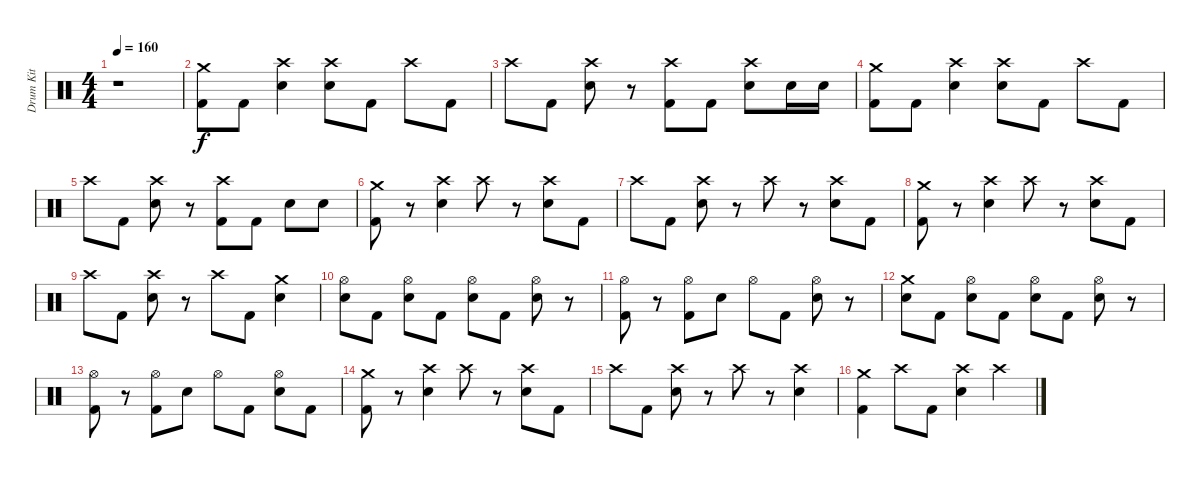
\track ("Drum Kit" "Drum Kit") {instrument percussion}
\staff {score}
\articulation defaults
\ts (4 4)
\tempo 160
\clef neutral
\ks c
r.1{dy f} |
("Crash medium (hit)" "Kick (hit) 2").8 "Kick (hit) 2".8 ("Crash high (hit)" "Electric Snare (hit)").4 ("Crash high (hit)" "Electric Snare (hit)").8 "Kick (hit) 2".8 "Crash high (hit)".8 "Kick (hit) 2".8 |
"Crash high (hit)".8 "Kick (hit) 2".8 ("Crash high (hit)" "Electric Snare (hit)").8 r.8 ("Crash high (hit)" "Kick (hit) 2").8 "Kick (hit) 2".8 ("Crash high (hit)" "Electric Snare (hit)").8 "Electric Snare (hit)".16 "Electric Snare (hit)".16 |
("Crash medium (hit)" "Kick (hit) 2").8 "Kick (hit) 2".8 ("Crash high (hit)" "Electric Snare (hit)").4 ("Crash high (hit)" "Electric Snare (hit)").8 "Kick (hit) 2".8 "Crash high (hit)".8 "Kick (hit) 2".8 |
"Crash high (hit)".8 "Kick (hit) 2".8 ("Crash high (hit)" "Electric Snare (hit)").8 r.8 ("Crash high (hit)" "Kick (hit) 2").8 "Kick (hit) 2".8 "Electric Snare (hit)".8 "Electric Snare (hit)".8 |
("Crash medium (hit)" "Kick (hit) 2").8 r.8 ("Crash high (hit)" "Electric Snare (hit)").4 "Crash high (hit)".8 r.8 ("Crash high (hit)" "Electric Snare (hit)").8 "Kick (hit) 2".8 |
"Crash high (hit)".8 "Kick (hit) 2".8 ("Crash high (hit)" "Electric Snare (hit)").8 r.8 "Crash high (hit)".8 r.8 ("Crash high (hit)" "Electric Snare (hit)").8 "Kick (hit) 2".8 |
("Crash medium (hit)" "Kick (hit) 2").8 r.8 ("Crash high (hit)" "Electric Snare (hit)").4 "Crash high (hit)".8 r.8 ("Crash high (hit)" "Electric Snare (hit)").8 "Kick (hit) 2".8 |
"Crash high (hit)".8 "Kick (hit) 2".8 ("Crash high (hit)" "Electric Snare (hit)").8 r.8 "Crash high (hit)".8 "Kick (hit) 2".8 ("Crash medium (hit)" "Electric Snare (hit)").4 |
("Hi-Hat (open)" "Electric Snare (hit)").8 "Kick (hit) 2".8 ("Hi-Hat (open)" "Electric Snare (hit)").8 "Kick (hit) 2".8 ("Hi-Hat (open)" "Electric Snare (hit)").8 "Kick (hit) 2".8 ("Hi-Hat (open)" "Electric Snare (hit)").8 r.8 |
("Hi-Hat (open)" "Kick (hit) 2").8 r.8 ("Hi-Hat (open)" "Kick (hit) 2").8 "Electric Snare (hit)".8 "Hi-Hat (open)".8 "Kick (hit) 2".8 ("Hi-Hat (open)" "Electric Snare (hit)").8 r.8 |
("Crash medium (hit)" "Electric Snare (hit)").8 "Kick (hit) 2".8 ("Hi-Hat (open)" "Electric Snare (hit)").8 "Kick (hit) 2".8 ("Hi-Hat (open)" "Electric Snare (hit)").8 "Kick (hit) 2".8 ("Hi-Hat (open)" "Electric Snare (hit)").8 r.8 |
("Hi-Hat (open)" "Kick (hit) 2").8 r.8 ("Hi-Hat (open)" "Kick (hit) 2").8 "Electric Snare (hit)".8 "Hi-Hat (open)".8 "Kick (hit) 2".8 ("Hi-Hat (open)" "Electric Snare (hit)").8 "Kick (hit) 2".8 |
("Crash medium (hit)" "Kick (hit) 2").8 r.8 ("Crash high (hit)" "Electric Snare (hit)").4 "Crash high (hit)".8 r.8 ("Crash high (hit)" "Electric Snare (hit)").8 "Kick (hit) 2".8 |
"Crash high (hit)".8 "Kick (hit) 2".8 ("Crash high (hit)" "Electric Snare (hit)").8 r.8 "Crash high (hit)".8 r.8 ("Crash high (hit)" "Electric Snare (hit)").4 |
("Crash medium (hit)" "Kick (hit) 2").4 "Crash high (hit)".8 "Kick (hit) 2".8 ("Crash high (hit)" "Electric Snare (hit)").4 "Crash high (hit)".4
